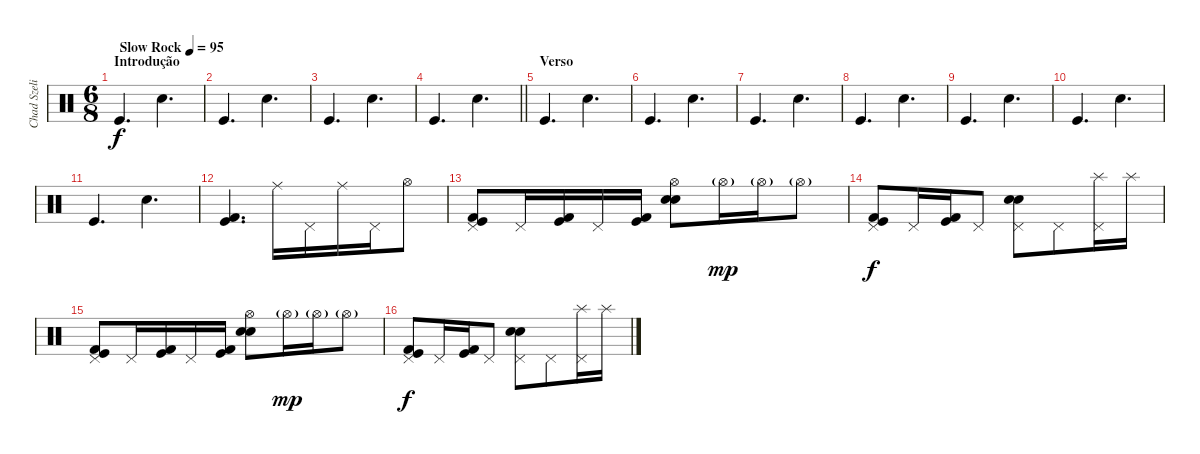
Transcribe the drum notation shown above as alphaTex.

\track ("Chad Szeliga" "Chad Szeli") {instrument percussion}
\staff {score}
\articulation defaults
\ts (6 8)
\section ("" "Introdução")
\tempo (95 "Slow Rock")
\clef neutral
\ks c "Kick (hit)".4{d dy f volume 5} "Electric Snare (hit)".4{d}
|
"Kick (hit)".4{d} "Electric Snare (hit)".4{d} |
"Kick (hit)".4{d} "Electric Snare (hit)".4{d} |
\barLineRight lightlight "Kick (hit)".4{d} "Electric Snare (hit)".4{d}
|
\section ("" "Verso")
"Kick (hit)".4{d} "Electric Snare (hit)".4{d} |
"Kick (hit)".4{d} "Electric Snare (hit)".4{d} |
"Kick (hit)".4{d} "Electric Snare (hit)".4{d} |
"Kick (hit)".4{d} "Electric Snare (hit)".4{d} |
"Kick (hit)".4{d} "Electric Snare (hit)".4{d} |
"Kick (hit)".4{d} "Electric Snare (hit)".4{d} |
"Kick (hit)".4{d} "Electric Snare (hit)".4{d} |
("Kick (hit) 2" "Kick (hit)").4{d} "Ride (middle)".16{volume 16} "Pedal Hi-Hat (hit)".16 "Ride (middle)".16 "Pedal Hi-Hat (hit)".16 "Hi-Hat (open)".8 |
("Kick (hit) 2" "Kick (hit)" "Pedal Hi-Hat (hit)").8 "Pedal Hi-Hat (hit)".16 ("Kick (hit) 2" "Kick (hit)").16 "Pedal Hi-Hat (hit)".16 ("Kick (hit) 2" "Kick (hit)").16 ("Snare (hit) 2" "Snare (hit) 2" "Hi-Hat (open)").8 "Hi-Hat (open)"{g}.16{dy mp} "Hi-Hat (open)"{g}.16 "Hi-Hat (open)"{g}.8 |
("Kick (hit) 2" "Kick (hit)" "Pedal Hi-Hat (hit)").8{dy f} "Pedal Hi-Hat (hit)".16 ("Kick (hit) 2" "Kick (hit)").16 "Pedal Hi-Hat (hit)".8 ("Snare (hit) 2" "Snare (hit) 2" "Pedal Hi-Hat (hit)").8 "Pedal Hi-Hat (hit)".8 ("Splash (hit)" "Pedal Hi-Hat (hit)").16 "Splash (hit)".16 |
("Kick (hit) 2" "Kick (hit)" "Pedal Hi-Hat (hit)").8 "Pedal Hi-Hat (hit)".16 ("Kick (hit) 2" "Kick (hit)").16 "Pedal Hi-Hat (hit)".16 ("Kick (hit) 2" "Kick (hit)").16 ("Snare (hit) 2" "Snare (hit) 2" "Hi-Hat (open)").8 "Hi-Hat (open)"{g}.16{dy mp} "Hi-Hat (open)"{g}.16 "Hi-Hat (open)"{g}.8 |
("Kick (hit) 2" "Kick (hit)" "Pedal Hi-Hat (hit)").8{dy f} "Pedal Hi-Hat (hit)".16 ("Kick (hit) 2" "Kick (hit)").16 "Pedal Hi-Hat (hit)".8 ("Snare (hit) 2" "Snare (hit) 2" "Pedal Hi-Hat (hit)").8 "Pedal Hi-Hat (hit)".8 ("Splash (hit)" "Pedal Hi-Hat (hit)").16 "Splash (hit)".16
